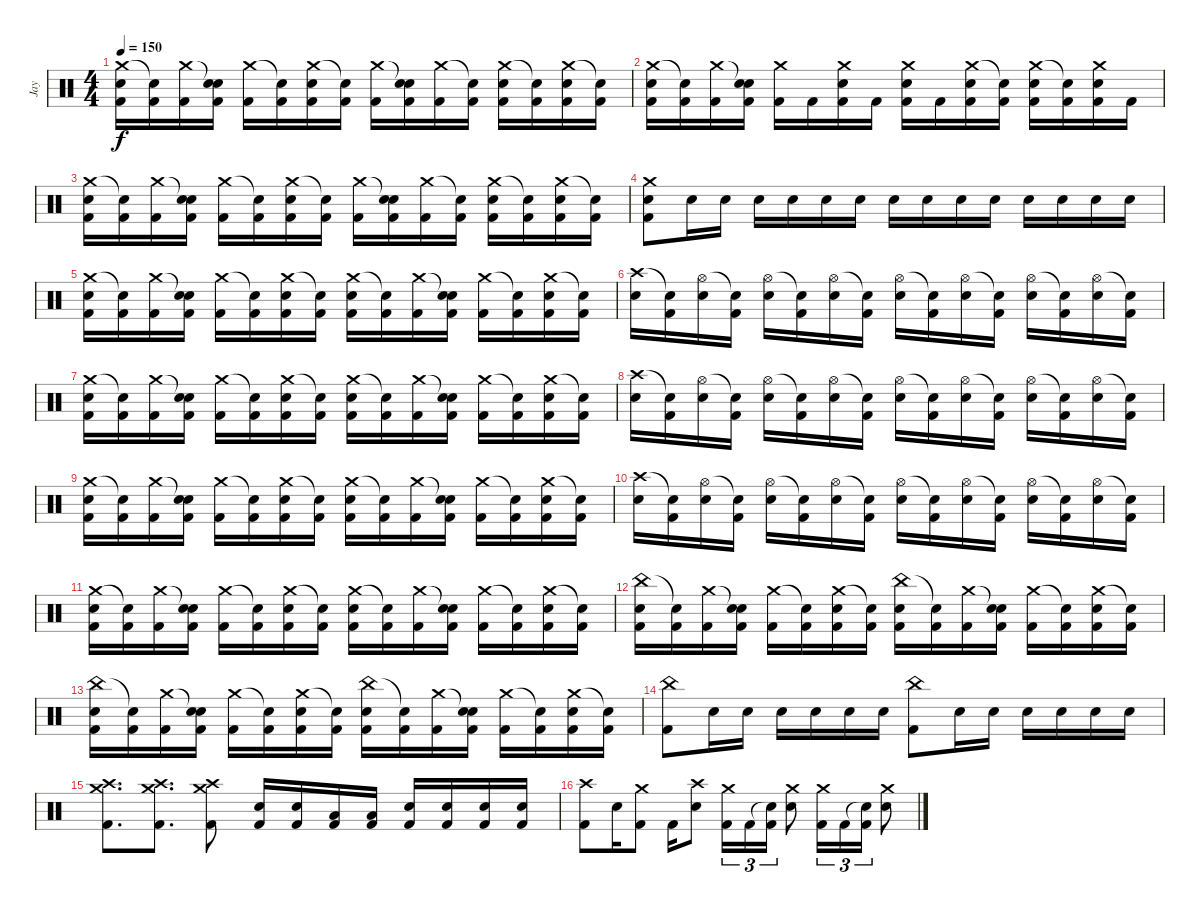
\track ("Jay" "Jay") {instrument percussion}
\staff {score}
\articulation defaults
\ts (4 4)
\tempo 150
\clef neutral
\ks c
("Crash medium (hit)" "Electric Snare (hit)" "Kick (hit) 2").16{dy f} ("Snare (hit)"{t} "Kick (hit) 2").16 ("Crash medium (hit)" "Kick (hit) 2").16 ("Snare (hit)"{t} "Electric Snare (hit)" "Kick (hit) 2").16 ("Crash medium (hit)" "Kick (hit) 2").16 ("Snare (hit)"{t} "Kick (hit) 2").16 ("Crash medium (hit)" "Electric Snare (hit)" "Kick (hit) 2").16 ("Snare (hit)"{t} "Kick (hit) 2").16 ("Crash medium (hit)" "Kick (hit) 2").16 ("Snare (hit)"{t} "Electric Snare (hit)" "Kick (hit) 2").16 ("Crash medium (hit)" "Kick (hit) 2").16 ("Snare (hit)"{t} "Kick (hit) 2").16 ("Crash medium (hit)" "Electric Snare (hit)" "Kick (hit) 2").16 ("Snare (hit)"{t} "Kick (hit) 2").16 ("Crash medium (hit)" "Electric Snare (hit)" "Kick (hit) 2").16 ("Snare (hit)"{t} "Kick (hit) 2").16 |
("Crash medium (hit)" "Electric Snare (hit)" "Kick (hit) 2").16 ("Snare (hit)"{t} "Kick (hit) 2").16 ("Crash medium (hit)" "Kick (hit) 2").16 ("Snare (hit)"{t} "Electric Snare (hit)" "Kick (hit) 2").16 ("Crash medium (hit)" "Kick (hit) 2").16 "Kick (hit) 2".16 ("Crash medium (hit)" "Electric Snare (hit)" "Kick (hit) 2").16 "Kick (hit) 2".16 ("Crash medium (hit)" "Electric Snare (hit)" "Kick (hit) 2").16 "Kick (hit) 2".16 ("Crash medium (hit)" "Electric Snare (hit)" "Kick (hit) 2").16 ("Snare (hit)"{t} "Kick (hit) 2").16 ("Crash medium (hit)" "Electric Snare (hit)" "Kick (hit) 2").16 ("Snare (hit)"{t} "Kick (hit) 2").16 ("Crash medium (hit)" "Electric Snare (hit)" "Kick (hit) 2").16 "Kick (hit) 2".16 |
("Crash medium (hit)" "Electric Snare (hit)" "Kick (hit) 2").16 ("Snare (hit)"{t} "Kick (hit) 2").16 ("Crash medium (hit)" "Kick (hit) 2").16 ("Snare (hit)"{t} "Electric Snare (hit)" "Kick (hit) 2").16 ("Crash medium (hit)" "Kick (hit) 2").16 ("Snare (hit)"{t} "Kick (hit) 2").16 ("Crash medium (hit)" "Electric Snare (hit)" "Kick (hit) 2").16 ("Snare (hit)"{t} "Kick (hit) 2").16 ("Crash medium (hit)" "Kick (hit) 2").16 ("Snare (hit)"{t} "Electric Snare (hit)" "Kick (hit) 2").16 ("Crash medium (hit)" "Kick (hit) 2").16 ("Snare (hit)"{t} "Kick (hit) 2").16 ("Crash medium (hit)" "Electric Snare (hit)" "Kick (hit) 2").16 ("Snare (hit)"{t} "Kick (hit) 2").16 ("Crash medium (hit)" "Electric Snare (hit)" "Kick (hit) 2").16 ("Snare (hit)"{t} "Kick (hit) 2").16 |
("Crash medium (hit)" "Electric Snare (hit)" "Kick (hit) 2").8 "Electric Snare (hit)".16 "Electric Snare (hit)".16 "Electric Snare (hit)".16 "Electric Snare (hit)".16 "Electric Snare (hit)".16 "Electric Snare (hit)".16 "Electric Snare (hit)".16 "Electric Snare (hit)".16 "Electric Snare (hit)".16 "Electric Snare (hit)".16 "Electric Snare (hit)".16 "Electric Snare (hit)".16 "Electric Snare (hit)".16 "Electric Snare (hit)".16 |
("Crash medium (hit)" "Electric Snare (hit)" "Kick (hit) 2").16 ("Snare (hit)"{t} "Kick (hit) 2").16 ("Crash medium (hit)" "Kick (hit) 2").16 ("Snare (hit)"{t} "Electric Snare (hit)" "Kick (hit) 2").16 ("Crash medium (hit)" "Kick (hit) 2").16 ("Snare (hit)"{t} "Kick (hit) 2").16 ("Crash medium (hit)" "Electric Snare (hit)" "Kick (hit) 2").16 ("Snare (hit)"{t} "Kick (hit) 2").16 ("Crash medium (hit)" "Electric Snare (hit)" "Kick (hit) 2").16 ("Snare (hit)"{t} "Kick (hit) 2").16 ("Crash medium (hit)" "Kick (hit) 2").16 ("Snare (hit)"{t} "Electric Snare (hit)" "Kick (hit) 2").16 ("Crash medium (hit)" "Kick (hit) 2").16 ("Snare (hit)"{t} "Kick (hit) 2").16 ("Crash medium (hit)" "Electric Snare (hit)" "Kick (hit) 2").16 ("Snare (hit)"{t} "Kick (hit) 2").16 |
("Crash high (hit)" "Electric Snare (hit)").16 ("Snare (hit)"{t} "Kick (hit) 2").16 ("Hi-Hat (open)" "Electric Snare (hit)").16 ("Snare (hit)"{t} "Kick (hit) 2").16 ("Hi-Hat (open)" "Electric Snare (hit)").16 ("Snare (hit)"{t} "Kick (hit) 2").16 ("Hi-Hat (open)" "Electric Snare (hit)").16 ("Snare (hit)"{t} "Kick (hit) 2").16 ("Hi-Hat (open)" "Electric Snare (hit)").16 ("Snare (hit)"{t} "Kick (hit) 2").16 ("Hi-Hat (open)" "Electric Snare (hit)").16 ("Snare (hit)"{t} "Kick (hit) 2").16 ("Hi-Hat (open)" "Electric Snare (hit)").16 ("Snare (hit)"{t} "Kick (hit) 2").16 ("Hi-Hat (open)" "Electric Snare (hit)").16 ("Snare (hit)"{t} "Kick (hit) 2").16 |
("Crash medium (hit)" "Electric Snare (hit)" "Kick (hit) 2").16 ("Snare (hit)"{t} "Kick (hit) 2").16 ("Crash medium (hit)" "Kick (hit) 2").16 ("Snare (hit)"{t} "Electric Snare (hit)" "Kick (hit) 2").16 ("Crash medium (hit)" "Kick (hit) 2").16 ("Snare (hit)"{t} "Kick (hit) 2").16 ("Crash medium (hit)" "Electric Snare (hit)" "Kick (hit) 2").16 ("Snare (hit)"{t} "Kick (hit) 2").16 ("Crash medium (hit)" "Electric Snare (hit)" "Kick (hit) 2").16 ("Snare (hit)"{t} "Kick (hit) 2").16 ("Crash medium (hit)" "Kick (hit) 2").16 ("Snare (hit)"{t} "Electric Snare (hit)" "Kick (hit) 2").16 ("Crash medium (hit)" "Kick (hit) 2").16 ("Snare (hit)"{t} "Kick (hit) 2").16 ("Crash medium (hit)" "Electric Snare (hit)" "Kick (hit) 2").16 ("Snare (hit)"{t} "Kick (hit) 2").16 |
("Crash high (hit)" "Electric Snare (hit)").16 ("Snare (hit)"{t} "Kick (hit) 2").16 ("Hi-Hat (open)" "Electric Snare (hit)").16 ("Snare (hit)"{t} "Kick (hit) 2").16 ("Hi-Hat (open)" "Electric Snare (hit)").16 ("Snare (hit)"{t} "Kick (hit) 2").16 ("Hi-Hat (open)" "Electric Snare (hit)").16 ("Snare (hit)"{t} "Kick (hit) 2").16 ("Hi-Hat (open)" "Electric Snare (hit)").16 ("Snare (hit)"{t} "Kick (hit) 2").16 ("Hi-Hat (open)" "Electric Snare (hit)").16 ("Snare (hit)"{t} "Kick (hit) 2").16 ("Hi-Hat (open)" "Electric Snare (hit)").16 ("Snare (hit)"{t} "Kick (hit) 2").16 ("Hi-Hat (open)" "Electric Snare (hit)").16 ("Snare (hit)"{t} "Kick (hit) 2").16 |
("Crash medium (hit)" "Electric Snare (hit)" "Kick (hit) 2").16 ("Snare (hit)"{t} "Kick (hit) 2").16 ("Crash medium (hit)" "Kick (hit) 2").16 ("Snare (hit)"{t} "Electric Snare (hit)" "Kick (hit) 2").16 ("Crash medium (hit)" "Kick (hit) 2").16 ("Snare (hit)"{t} "Kick (hit) 2").16 ("Crash medium (hit)" "Electric Snare (hit)" "Kick (hit) 2").16 ("Snare (hit)"{t} "Kick (hit) 2").16 ("Crash medium (hit)" "Electric Snare (hit)" "Kick (hit) 2").16 ("Snare (hit)"{t} "Kick (hit) 2").16 ("Crash medium (hit)" "Kick (hit) 2").16 ("Snare (hit)"{t} "Electric Snare (hit)" "Kick (hit) 2").16 ("Crash medium (hit)" "Kick (hit) 2").16 ("Snare (hit)"{t} "Kick (hit) 2").16 ("Crash medium (hit)" "Electric Snare (hit)" "Kick (hit) 2").16 ("Snare (hit)"{t} "Kick (hit) 2").16 |
("Crash high (hit)" "Electric Snare (hit)").16 ("Snare (hit)"{t} "Kick (hit) 2").16 ("Hi-Hat (open)" "Electric Snare (hit)").16 ("Snare (hit)"{t} "Kick (hit) 2").16 ("Hi-Hat (open)" "Electric Snare (hit)").16 ("Snare (hit)"{t} "Kick (hit) 2").16 ("Hi-Hat (open)" "Electric Snare (hit)").16 ("Snare (hit)"{t} "Kick (hit) 2").16 ("Hi-Hat (open)" "Electric Snare (hit)").16 ("Snare (hit)"{t} "Kick (hit) 2").16 ("Hi-Hat (open)" "Electric Snare (hit)").16 ("Snare (hit)"{t} "Kick (hit) 2").16 ("Hi-Hat (open)" "Electric Snare (hit)").16 ("Snare (hit)"{t} "Kick (hit) 2").16 ("Hi-Hat (open)" "Electric Snare (hit)").16 ("Snare (hit)"{t} "Kick (hit) 2").16 |
("Crash medium (hit)" "Electric Snare (hit)" "Kick (hit) 2").16 ("Snare (hit)"{t} "Kick (hit) 2").16 ("Crash medium (hit)" "Kick (hit) 2").16 ("Snare (hit)"{t} "Electric Snare (hit)" "Kick (hit) 2").16 ("Crash medium (hit)" "Kick (hit) 2").16 ("Snare (hit)"{t} "Kick (hit) 2").16 ("Crash medium (hit)" "Electric Snare (hit)" "Kick (hit) 2").16 ("Snare (hit)"{t} "Kick (hit) 2").16 ("Crash medium (hit)" "Electric Snare (hit)" "Kick (hit) 2").16 ("Snare (hit)"{t} "Kick (hit) 2").16 ("Crash medium (hit)" "Kick (hit) 2").16 ("Snare (hit)"{t} "Electric Snare (hit)" "Kick (hit) 2").16 ("Crash medium (hit)" "Kick (hit) 2").16 ("Snare (hit)"{t} "Kick (hit) 2").16 ("Crash medium (hit)" "Electric Snare (hit)" "Kick (hit) 2").16 ("Snare (hit)"{t} "Kick (hit) 2").16 |
("China (hit)" "Electric Snare (hit)" "Kick (hit) 2").16 ("Snare (hit)"{t} "Kick (hit) 2").16 ("Crash medium (hit)" "Kick (hit) 2").16 ("Snare (hit)"{t} "Electric Snare (hit)" "Kick (hit) 2").16 ("Crash medium (hit)" "Kick (hit) 2").16 ("Snare (hit)"{t} "Kick (hit) 2").16 ("Crash medium (hit)" "Electric Snare (hit)" "Kick (hit) 2").16 ("Snare (hit)"{t} "Kick (hit) 2").16 ("China (hit)" "Electric Snare (hit)" "Kick (hit) 2").16 ("Snare (hit)"{t} "Kick (hit) 2").16 ("Crash medium (hit)" "Kick (hit) 2").16 ("Snare (hit)"{t} "Electric Snare (hit)" "Kick (hit) 2").16 ("Crash medium (hit)" "Kick (hit) 2").16 ("Snare (hit)"{t} "Kick (hit) 2").16 ("Crash medium (hit)" "Electric Snare (hit)" "Kick (hit) 2").16 ("Snare (hit)"{t} "Kick (hit) 2").16 |
("China (hit)" "Electric Snare (hit)" "Kick (hit) 2").16 ("Snare (hit)"{t} "Kick (hit) 2").16 ("Crash medium (hit)" "Kick (hit) 2").16 ("Snare (hit)"{t} "Electric Snare (hit)" "Kick (hit) 2").16 ("Crash medium (hit)" "Kick (hit) 2").16 ("Snare (hit)"{t} "Kick (hit) 2").16 ("Crash medium (hit)" "Electric Snare (hit)" "Kick (hit) 2").16 ("Snare (hit)"{t} "Kick (hit) 2").16 ("China (hit)" "Electric Snare (hit)" "Kick (hit) 2").16 ("Snare (hit)"{t} "Kick (hit) 2").16 ("Crash medium (hit)" "Kick (hit) 2").16 ("Snare (hit)"{t} "Electric Snare (hit)" "Kick (hit) 2").16 ("Crash medium (hit)" "Kick (hit) 2").16 ("Snare (hit)"{t} "Kick (hit) 2").16 ("Crash medium (hit)" "Electric Snare (hit)" "Kick (hit) 2").16 ("Snare (hit)"{t} "Kick (hit) 2").16 |
("China (hit)" "Kick (hit) 2").8 "Electric Snare (hit)".16 "Electric Snare (hit)".16 "Electric Snare (hit)".16 "Electric Snare (hit)".16 "Electric Snare (hit)".16 "Electric Snare (hit)".16 ("China (hit)" "Kick (hit) 2").8 "Electric Snare (hit)".16 "Electric Snare (hit)".16 "Electric Snare (hit)".16 "Electric Snare (hit)".16 "Electric Snare (hit)".16 "Electric Snare (hit)".16 |
("Crash high (hit)" "Crash medium (hit)" "Kick (hit) 2").8{d} ("Crash high (hit)" "Crash medium (hit)" "Kick (hit) 2").8{d} ("Crash high (hit)" "Crash medium (hit)" "Kick (hit) 2").8 ("Electric Snare (hit)" "Kick (hit) 2").16 ("Electric Snare (hit)" "Kick (hit) 2").16 ("Low Tom (hit)" "Kick (hit) 2").16 ("Low Tom (hit)" "Kick (hit) 2").16 ("Electric Snare (hit)" "Kick (hit) 2").16 ("Electric Snare (hit)" "Kick (hit) 2").16 ("Electric Snare (hit)" "Kick (hit) 2").16 ("Electric Snare (hit)" "Kick (hit) 2").16 |
("Crash high (hit)" "Kick (hit) 2").8 "Electric Snare (hit)".16 ("Crash medium (hit)" "Kick (hit) 2").8 "Kick (hit) 2".16 ("Crash high (hit)" "Electric Snare (hit)").8 ("Crash medium (hit)" "Kick (hit) 2").16{tu (3 2)} "Kick (hit) 2".16{tu (3 2)} ("Snare (hit)"{t} "Kick (hit) 2").16{tu (3 2)} ("Crash medium (hit)" "Electric Snare (hit)").8 ("Crash medium (hit)" "Kick (hit) 2").16{tu (3 2)} "Kick (hit) 2".16{tu (3 2)} ("Snare (hit)"{t} "Kick (hit) 2").16{tu (3 2)} ("Crash medium (hit)" "Electric Snare (hit)").8
